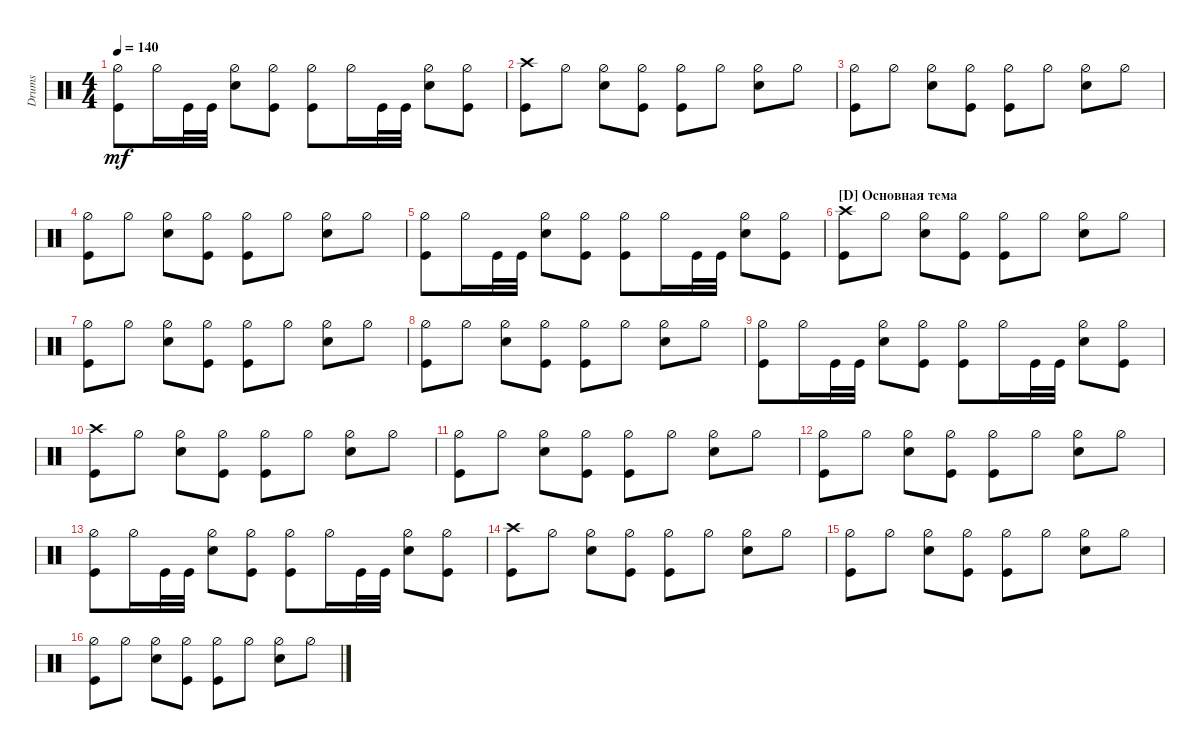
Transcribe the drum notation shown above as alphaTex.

\track ("Drumkit" "Drums") {instrument percussion}
\staff {score}
\articulation defaults
\ts (4 4)
\tempo 140
\clef neutral
\ks c
("Kick (hit)" "Hi-Hat (half)").8{dy mf} "Hi-Hat (half)".16 "Kick (hit)".32 "Kick (hit)".32 ("Hi-Hat (half)" "Snare (hit) 2").8 ("Kick (hit)" "Hi-Hat (half)").8 ("Kick (hit)" "Hi-Hat (half)").8 "Hi-Hat (half)".16 "Kick (hit)".32 "Kick (hit)".32 ("Hi-Hat (half)" "Snare (hit) 2").8 ("Hi-Hat (half)" "Kick (hit)").8 |
("Kick (hit)" "Crash high (hit)").8 "Hi-Hat (half)".8 ("Snare (hit) 2" "Hi-Hat (half)").8 ("Kick (hit)" "Hi-Hat (half)").8 ("Kick (hit)" "Hi-Hat (half)").8 "Hi-Hat (half)".8 ("Snare (hit) 2" "Hi-Hat (half)").8 "Hi-Hat (half)".8 |
("Kick (hit)" "Hi-Hat (half)").8 "Hi-Hat (half)".8 ("Snare (hit) 2" "Hi-Hat (half)").8 ("Kick (hit)" "Hi-Hat (half)").8 ("Kick (hit)" "Hi-Hat (half)").8 "Hi-Hat (half)".8 ("Snare (hit) 2" "Hi-Hat (half)").8 "Hi-Hat (half)".8 |
("Kick (hit)" "Hi-Hat (half)").8 "Hi-Hat (half)".8 ("Snare (hit) 2" "Hi-Hat (half)").8 ("Kick (hit)" "Hi-Hat (half)").8 ("Kick (hit)" "Hi-Hat (half)").8 "Hi-Hat (half)".8 ("Snare (hit) 2" "Hi-Hat (half)").8 "Hi-Hat (half)".8 |
("Kick (hit)" "Hi-Hat (half)").8 "Hi-Hat (half)".16 "Kick (hit)".32 "Kick (hit)".32 ("Hi-Hat (half)" "Snare (hit) 2").8 ("Kick (hit)" "Hi-Hat (half)").8 ("Kick (hit)" "Hi-Hat (half)").8 "Hi-Hat (half)".16 "Kick (hit)".32 "Kick (hit)".32 ("Hi-Hat (half)" "Snare (hit) 2").8 ("Hi-Hat (half)" "Kick (hit)").8 |
\section ("D" "Основная тема")
("Kick (hit)" "Crash high (hit)").8 "Hi-Hat (half)".8 ("Snare (hit) 2" "Hi-Hat (half)").8 ("Kick (hit)" "Hi-Hat (half)").8 ("Kick (hit)" "Hi-Hat (half)").8 "Hi-Hat (half)".8 ("Snare (hit) 2" "Hi-Hat (half)").8 "Hi-Hat (half)".8 |
("Kick (hit)" "Hi-Hat (half)").8 "Hi-Hat (half)".8 ("Snare (hit) 2" "Hi-Hat (half)").8 ("Kick (hit)" "Hi-Hat (half)").8 ("Kick (hit)" "Hi-Hat (half)").8 "Hi-Hat (half)".8 ("Snare (hit) 2" "Hi-Hat (half)").8 "Hi-Hat (half)".8 |
("Kick (hit)" "Hi-Hat (half)").8 "Hi-Hat (half)".8 ("Snare (hit) 2" "Hi-Hat (half)").8 ("Kick (hit)" "Hi-Hat (half)").8 ("Kick (hit)" "Hi-Hat (half)").8 "Hi-Hat (half)".8 ("Snare (hit) 2" "Hi-Hat (half)").8 "Hi-Hat (half)".8 |
("Kick (hit)" "Hi-Hat (half)").8 "Hi-Hat (half)".16 "Kick (hit)".32 "Kick (hit)".32 ("Hi-Hat (half)" "Snare (hit) 2").8 ("Kick (hit)" "Hi-Hat (half)").8 ("Kick (hit)" "Hi-Hat (half)").8 "Hi-Hat (half)".16 "Kick (hit)".32 "Kick (hit)".32 ("Hi-Hat (half)" "Snare (hit) 2").8 ("Hi-Hat (half)" "Kick (hit)").8 |
("Kick (hit)" "Crash high (hit)").8 "Hi-Hat (half)".8 ("Snare (hit) 2" "Hi-Hat (half)").8 ("Kick (hit)" "Hi-Hat (half)").8 ("Kick (hit)" "Hi-Hat (half)").8 "Hi-Hat (half)".8 ("Snare (hit) 2" "Hi-Hat (half)").8 "Hi-Hat (half)".8 |
("Kick (hit)" "Hi-Hat (half)").8 "Hi-Hat (half)".8 ("Snare (hit) 2" "Hi-Hat (half)").8 ("Kick (hit)" "Hi-Hat (half)").8 ("Kick (hit)" "Hi-Hat (half)").8 "Hi-Hat (half)".8 ("Snare (hit) 2" "Hi-Hat (half)").8 "Hi-Hat (half)".8 |
("Kick (hit)" "Hi-Hat (half)").8 "Hi-Hat (half)".8 ("Snare (hit) 2" "Hi-Hat (half)").8 ("Kick (hit)" "Hi-Hat (half)").8 ("Kick (hit)" "Hi-Hat (half)").8 "Hi-Hat (half)".8 ("Snare (hit) 2" "Hi-Hat (half)").8 "Hi-Hat (half)".8 |
("Kick (hit)" "Hi-Hat (half)").8 "Hi-Hat (half)".16 "Kick (hit)".32 "Kick (hit)".32 ("Hi-Hat (half)" "Snare (hit) 2").8 ("Kick (hit)" "Hi-Hat (half)").8 ("Kick (hit)" "Hi-Hat (half)").8 "Hi-Hat (half)".16 "Kick (hit)".32 "Kick (hit)".32 ("Hi-Hat (half)" "Snare (hit) 2").8 ("Hi-Hat (half)" "Kick (hit)").8 |
("Kick (hit)" "Crash high (hit)").8 "Hi-Hat (half)".8 ("Snare (hit) 2" "Hi-Hat (half)").8 ("Kick (hit)" "Hi-Hat (half)").8 ("Kick (hit)" "Hi-Hat (half)").8 "Hi-Hat (half)".8 ("Snare (hit) 2" "Hi-Hat (half)").8 "Hi-Hat (half)".8 |
("Kick (hit)" "Hi-Hat (half)").8 "Hi-Hat (half)".8 ("Snare (hit) 2" "Hi-Hat (half)").8 ("Kick (hit)" "Hi-Hat (half)").8 ("Kick (hit)" "Hi-Hat (half)").8 "Hi-Hat (half)".8 ("Snare (hit) 2" "Hi-Hat (half)").8 "Hi-Hat (half)".8 |
("Kick (hit)" "Hi-Hat (half)").8 "Hi-Hat (half)".8 ("Snare (hit) 2" "Hi-Hat (half)").8 ("Kick (hit)" "Hi-Hat (half)").8 ("Kick (hit)" "Hi-Hat (half)").8 "Hi-Hat (half)".8 ("Snare (hit) 2" "Hi-Hat (half)").8 "Hi-Hat (half)".8
